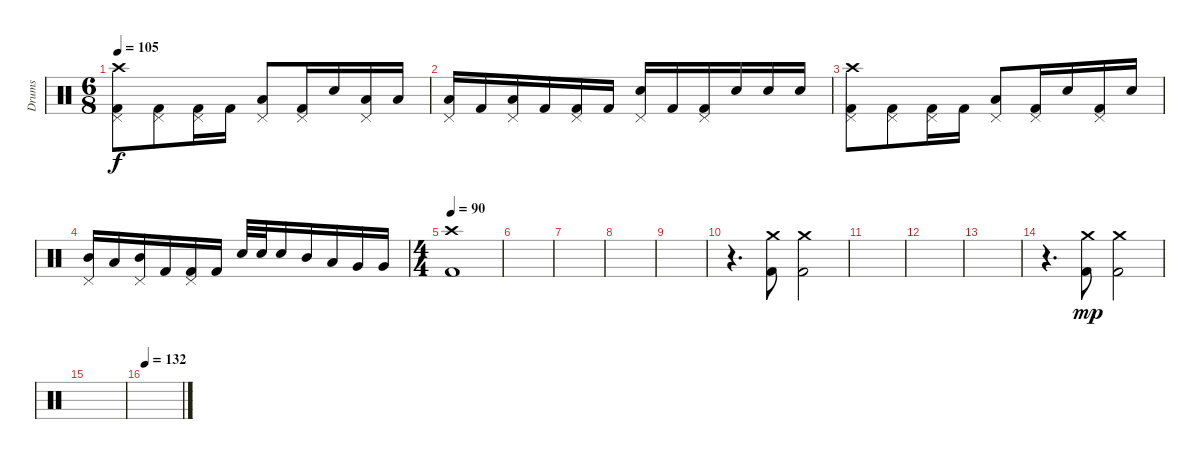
\track ("Drums" "Drums") {instrument percussion}
\staff {score}
\articulation defaults
\ts (6 8)
\tempo 105
\clef neutral
\ks c
("Crash high (hit)" "Pedal Hi-Hat (hit)" "Kick (hit) 2").8{dy f} ("Pedal Hi-Hat (hit)" "Kick (hit) 2").8 ("Pedal Hi-Hat (hit)" "Kick (hit) 2").16 "Kick (hit) 2".16 ("Pedal Hi-Hat (hit)" "Low Tom (hit)").8 ("Pedal Hi-Hat (hit)" "Kick (hit) 2").16 "Snare (hit) 2".16 ("Low Tom (hit)" "Pedal Hi-Hat (hit)").16 "Low Tom (hit)".16 |
("Pedal Hi-Hat (hit)" "Low Tom (hit)").16 "Kick (hit) 2".16 ("Pedal Hi-Hat (hit)" "Low Tom (hit)").16 "Kick (hit) 2".16 ("Pedal Hi-Hat (hit)" "Kick (hit) 2").16 "Kick (hit) 2".16 ("Snare (hit) 2" "Pedal Hi-Hat (hit)").16 "Kick (hit) 2".16 ("Pedal Hi-Hat (hit)" "Kick (hit) 2").16 "Snare (hit) 2".16 "Snare (hit) 2".16 "Snare (hit) 2".16 |
("Crash high (hit)" "Pedal Hi-Hat (hit)" "Kick (hit) 2").8 ("Pedal Hi-Hat (hit)" "Kick (hit) 2").8 ("Pedal Hi-Hat (hit)" "Kick (hit) 2").16 "Kick (hit) 2".16 ("Pedal Hi-Hat (hit)" "Low Tom (hit)").8 ("Pedal Hi-Hat (hit)" "Kick (hit) 2").16 "Snare (hit) 2".16 ("Pedal Hi-Hat (hit)" "Kick (hit) 2").16 "Snare (hit) 2".16 |
("Mid Tom (hit)" "Pedal Hi-Hat (hit)").16 "Low Tom (hit)".16 ("Mid Tom (hit)" "Pedal Hi-Hat (hit)").16 "Kick (hit) 2".16 ("Pedal Hi-Hat (hit)" "Kick (hit) 2").16 "Kick (hit) 2".16 "Snare (hit) 2".32 "Snare (hit) 2".32 "Snare (hit) 2".16 "Mid Tom (hit)".16 "Low Tom (hit)".16 "Very Low Tom (hit)".16 "Very Low Tom (hit)".16 |
\ts (4 4)
\tempo 90
("Crash high (hit)" "Kick (hit) 2").1 |
|
|
|
|
r.4{d} ("Crash medium (hit)" "Kick (hit) 2").8 ("Crash medium (hit)" "Kick (hit) 2").2 |
|
|
|
r.4{d} ("Crash medium (hit)" "Kick (hit) 2").8{dy mp} ("Crash medium (hit)" "Kick (hit) 2").2 |
|
\tempo 132
